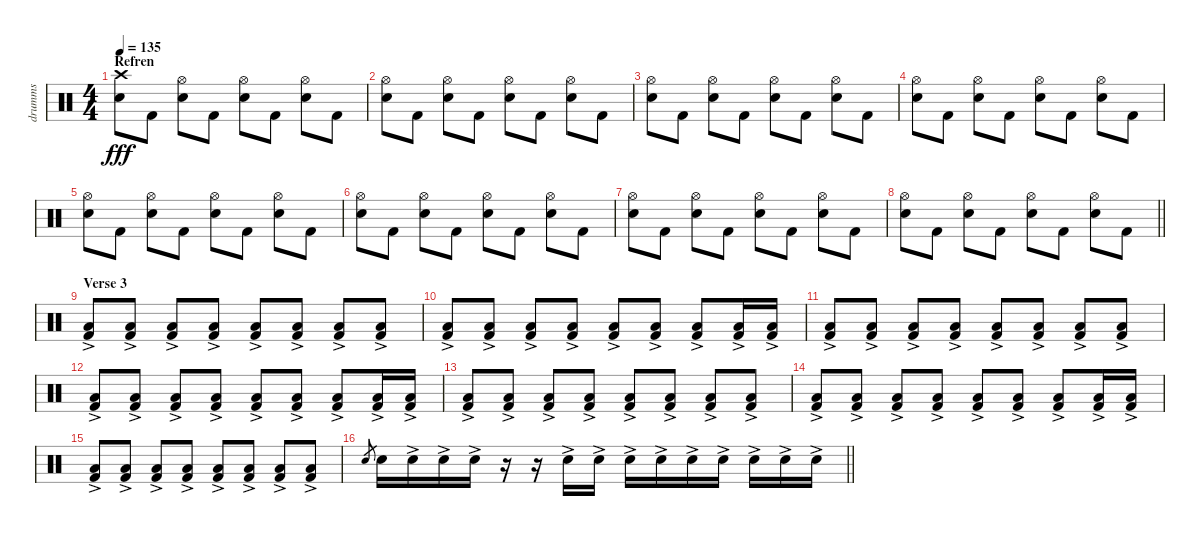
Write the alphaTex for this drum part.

\track ("drumms" "drumms") {instrument percussion}
\staff
\articulation defaults
\ts (4 4)
\section ("" "Refren")
\tempo 135
\clef neutral
\ks c
("Crash high (hit)" "Snare (hit) 2").8{dy fff} "Kick (hit) 2".8 ("Hi-Hat (open)" "Snare (hit) 2").8 "Kick (hit) 2".8 ("Hi-Hat (open)" "Snare (hit) 2").8 "Kick (hit) 2".8 ("Hi-Hat (open)" "Snare (hit) 2").8 "Kick (hit) 2".8 |
("Hi-Hat (open)" "Snare (hit) 2").8 "Kick (hit) 2".8 ("Hi-Hat (open)" "Snare (hit) 2").8 "Kick (hit) 2".8 ("Hi-Hat (open)" "Snare (hit) 2").8 "Kick (hit) 2".8 ("Hi-Hat (open)" "Snare (hit) 2").8 "Kick (hit) 2".8 |
("Hi-Hat (open)" "Snare (hit) 2").8 "Kick (hit) 2".8 ("Hi-Hat (open)" "Snare (hit) 2").8 "Kick (hit) 2".8 ("Hi-Hat (open)" "Snare (hit) 2").8 "Kick (hit) 2".8 ("Hi-Hat (open)" "Snare (hit) 2").8 "Kick (hit) 2".8 |
("Hi-Hat (open)" "Snare (hit) 2").8 "Kick (hit) 2".8 ("Hi-Hat (open)" "Snare (hit) 2").8 "Kick (hit) 2".8 ("Hi-Hat (open)" "Snare (hit) 2").8 "Kick (hit) 2".8 ("Hi-Hat (open)" "Snare (hit) 2").8 "Kick (hit) 2".8 |
("Hi-Hat (open)" "Snare (hit) 2").8 "Kick (hit) 2".8 ("Hi-Hat (open)" "Snare (hit) 2").8 "Kick (hit) 2".8 ("Hi-Hat (open)" "Snare (hit) 2").8 "Kick (hit) 2".8 ("Hi-Hat (open)" "Snare (hit) 2").8 "Kick (hit) 2".8 |
("Hi-Hat (open)" "Snare (hit) 2").8 "Kick (hit) 2".8 ("Hi-Hat (open)" "Snare (hit) 2").8 "Kick (hit) 2".8 ("Hi-Hat (open)" "Snare (hit) 2").8 "Kick (hit) 2".8 ("Hi-Hat (open)" "Snare (hit) 2").8 "Kick (hit) 2".8 |
("Hi-Hat (open)" "Snare (hit) 2").8 "Kick (hit) 2".8 ("Hi-Hat (open)" "Snare (hit) 2").8 "Kick (hit) 2".8 ("Hi-Hat (open)" "Snare (hit) 2").8 "Kick (hit) 2".8 ("Hi-Hat (open)" "Snare (hit) 2").8 "Kick (hit) 2".8 |
\barLineRight lightlight
("Hi-Hat (open)" "Snare (hit) 2").8 "Kick (hit) 2".8 ("Hi-Hat (open)" "Snare (hit) 2").8 "Kick (hit) 2".8 ("Hi-Hat (open)" "Snare (hit) 2").8 "Kick (hit) 2".8 ("Hi-Hat (open)" "Snare (hit) 2").8 "Kick (hit) 2".8 |
\section ("" "Verse 3")
("Low Tom (hit)"{ac} "Kick (hit) 2"{ac}).8 ("Low Tom (hit)"{ac} "Kick (hit) 2"{ac}).8 ("Low Tom (hit)"{ac} "Kick (hit) 2"{ac}).8 ("Low Tom (hit)"{ac} "Kick (hit) 2"{ac}).8 ("Low Tom (hit)"{ac} "Kick (hit) 2"{ac}).8 ("Low Tom (hit)"{ac} "Kick (hit) 2"{ac}).8 ("Low Tom (hit)"{ac} "Kick (hit) 2"{ac}).8 ("Low Tom (hit)"{ac} "Kick (hit) 2"{ac}).8 |
("Low Tom (hit)"{ac} "Kick (hit) 2"{ac}).8 ("Low Tom (hit)"{ac} "Kick (hit) 2"{ac}).8 ("Low Tom (hit)"{ac} "Kick (hit) 2"{ac}).8 ("Low Tom (hit)"{ac} "Kick (hit) 2"{ac}).8 ("Low Tom (hit)"{ac} "Kick (hit) 2"{ac}).8 ("Low Tom (hit)"{ac} "Kick (hit) 2"{ac}).8 ("Low Tom (hit)"{ac} "Kick (hit) 2"{ac}).8 ("Low Tom (hit)"{ac} "Kick (hit) 2"{ac}).16 ("Low Tom (hit)"{ac} "Kick (hit) 2"{ac}).16 |
("Low Tom (hit)"{ac} "Kick (hit) 2"{ac}).8 ("Low Tom (hit)"{ac} "Kick (hit) 2"{ac}).8 ("Low Tom (hit)"{ac} "Kick (hit) 2"{ac}).8 ("Low Tom (hit)"{ac} "Kick (hit) 2"{ac}).8 ("Low Tom (hit)"{ac} "Kick (hit) 2"{ac}).8 ("Low Tom (hit)"{ac} "Kick (hit) 2"{ac}).8 ("Low Tom (hit)"{ac} "Kick (hit) 2"{ac}).8 ("Low Tom (hit)"{ac} "Kick (hit) 2"{ac}).8 |
("Low Tom (hit)"{ac} "Kick (hit) 2"{ac}).8 ("Low Tom (hit)"{ac} "Kick (hit) 2"{ac}).8 ("Low Tom (hit)"{ac} "Kick (hit) 2"{ac}).8 ("Low Tom (hit)"{ac} "Kick (hit) 2"{ac}).8 ("Low Tom (hit)"{ac} "Kick (hit) 2"{ac}).8 ("Low Tom (hit)"{ac} "Kick (hit) 2"{ac}).8 ("Low Tom (hit)"{ac} "Kick (hit) 2"{ac}).8 ("Low Tom (hit)"{ac} "Kick (hit) 2"{ac}).16 ("Low Tom (hit)"{ac} "Kick (hit) 2"{ac}).16 |
("Low Tom (hit)"{ac} "Kick (hit) 2"{ac}).8 ("Low Tom (hit)"{ac} "Kick (hit) 2"{ac}).8 ("Low Tom (hit)"{ac} "Kick (hit) 2"{ac}).8 ("Low Tom (hit)"{ac} "Kick (hit) 2"{ac}).8 ("Low Tom (hit)"{ac} "Kick (hit) 2"{ac}).8 ("Low Tom (hit)"{ac} "Kick (hit) 2"{ac}).8 ("Low Tom (hit)"{ac} "Kick (hit) 2"{ac}).8 ("Low Tom (hit)"{ac} "Kick (hit) 2"{ac}).8 |
("Low Tom (hit)"{ac} "Kick (hit) 2"{ac}).8 ("Low Tom (hit)"{ac} "Kick (hit) 2"{ac}).8 ("Low Tom (hit)"{ac} "Kick (hit) 2"{ac}).8 ("Low Tom (hit)"{ac} "Kick (hit) 2"{ac}).8 ("Low Tom (hit)"{ac} "Kick (hit) 2"{ac}).8 ("Low Tom (hit)"{ac} "Kick (hit) 2"{ac}).8 ("Low Tom (hit)"{ac} "Kick (hit) 2"{ac}).8 ("Low Tom (hit)"{ac} "Kick (hit) 2"{ac}).16 ("Low Tom (hit)"{ac} "Kick (hit) 2"{ac}).16 |
("Low Tom (hit)"{ac} "Kick (hit) 2"{ac}).8 ("Low Tom (hit)"{ac} "Kick (hit) 2"{ac}).8 ("Low Tom (hit)"{ac} "Kick (hit) 2"{ac}).8 ("Low Tom (hit)"{ac} "Kick (hit) 2"{ac}).8 ("Low Tom (hit)"{ac} "Kick (hit) 2"{ac}).8 ("Low Tom (hit)"{ac} "Kick (hit) 2"{ac}).8 ("Low Tom (hit)"{ac} "Kick (hit) 2"{ac}).8 ("Low Tom (hit)"{ac} "Kick (hit) 2"{ac}).8 |
\barLineRight lightlight "Snare (hit) 2".8{gr} "Snare (hit) 2".16 "Snare (hit) 2"{ac}.16 "Snare (hit) 2"{ac}.16 "Snare (hit) 2"{ac}.16
r.16 r.16 "Snare (hit) 2"{ac}.16 "Snare (hit) 2"{ac}.16 "Snare (hit) 2"{ac}.16 "Snare (hit) 2"{ac}.16 "Snare (hit) 2"{ac}.16 "Snare (hit) 2"{ac}.16 "Snare (hit) 2"{ac}.16 "Snare (hit) 2"{ac}.16 "Snare (hit) 2"{ac}.16
